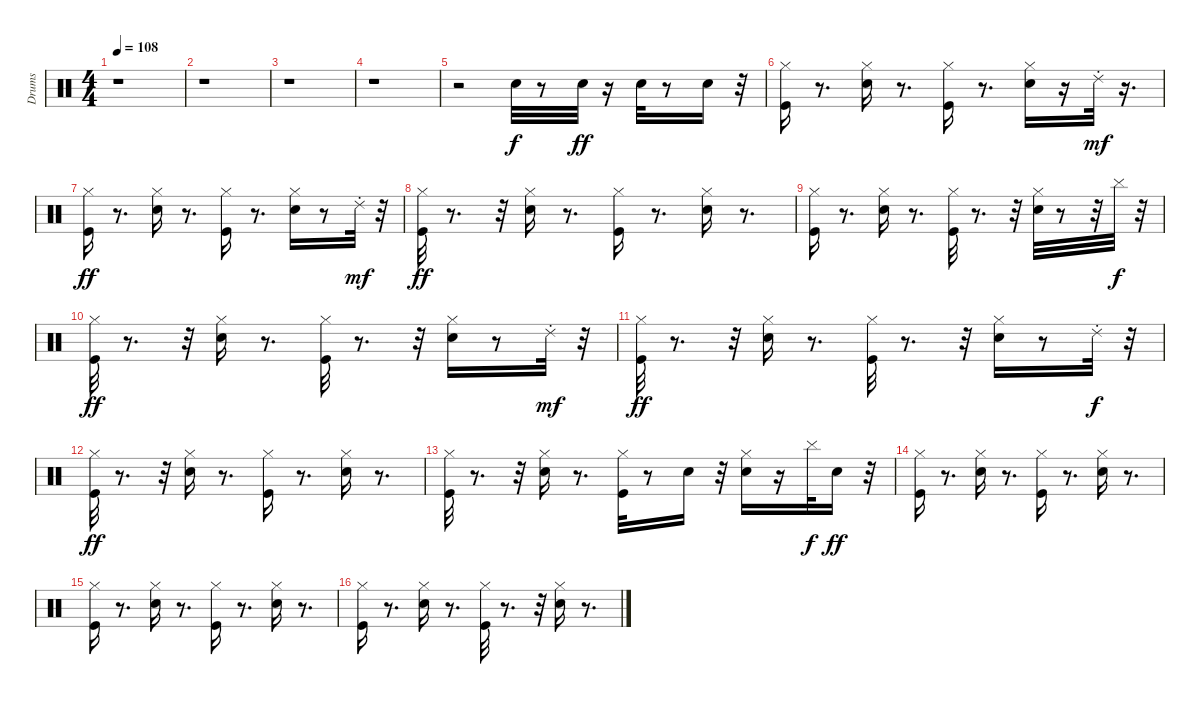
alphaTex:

\track ("Drums" "Drums") {instrument percussion}
\staff {score}
\articulation defaults
\ts (4 4)
\tempo 108
\clef neutral
\ks c
r.1{dy f} |
r.1 |
r.1 |
r.1 |
r.2 "Electric Snare (hit)".32 r.8 "Electric Snare (hit)".32{dy ff} r.16 "Electric Snare (hit)".32 r.8 "Electric Snare (hit)".16 r.32 |
("Kick (hit)" "Hi-Hat (closed)").16 r.8{d} ("Electric Snare (hit)" "Hi-Hat (closed)").16 r.8{d} ("Kick (hit)" "Hi-Hat (closed)").16 r.8{d} ("Hi-Hat (closed)" "Electric Snare (hit)").16 r.16 "Ride (choke) 2".32{dy mf} r.16{d} |
("Hi-Hat (closed)" "Kick (hit)").16{dy ff} r.8{d} ("Electric Snare (hit)" "Hi-Hat (closed)").16 r.8{d} ("Hi-Hat (closed)" "Kick (hit)").16 r.8{d} ("Hi-Hat (closed)" "Electric Snare (hit)").16 r.8 "Ride (choke) 2".32{dy mf} r.32 |
("Hi-Hat (closed)" "Kick (hit)").32{dy ff} r.8{d} r.32 ("Electric Snare (hit)" "Hi-Hat (closed)").16 r.8{d} ("Kick (hit)" "Hi-Hat (closed)").16 r.8{d} ("Hi-Hat (closed)" "Electric Snare (hit)").16 r.8{d} |
("Kick (hit)" "Hi-Hat (closed)").16 r.8{d} ("Hi-Hat (closed)" "Electric Snare (hit)").16 r.8{d} ("Kick (hit)" "Hi-Hat (closed)").32 r.8{d} r.32 ("Hi-Hat (closed)" "Electric Snare (hit)").32 r.8 r.32 "Cymbal (hit)".32{dy f} r.32 |
("Kick (hit)" "Hi-Hat (closed)").32{dy ff} r.8{d} r.32 ("Electric Snare (hit)" "Hi-Hat (closed)").16 r.8{d} ("Kick (hit)" "Hi-Hat (closed)").32 r.8{d} r.32 ("Hi-Hat (closed)" "Electric Snare (hit)").16 r.8 "Ride (choke) 2".32{dy mf} r.32 |
("Kick (hit)" "Hi-Hat (closed)").32{dy ff} r.8{d} r.32 ("Electric Snare (hit)" "Hi-Hat (closed)").16 r.8{d} ("Hi-Hat (closed)" "Kick (hit)").32 r.8{d} r.32 ("Electric Snare (hit)" "Hi-Hat (closed)").16 r.8 "Ride (choke) 2".32{dy f} r.32 |
("Kick (hit)" "Hi-Hat (closed)").32{dy ff} r.8{d} r.32 ("Hi-Hat (closed)" "Electric Snare (hit)").16 r.8{d} ("Kick (hit)" "Hi-Hat (closed)").16 r.8{d} ("Hi-Hat (closed)" "Electric Snare (hit)").16 r.8{d} |
("Hi-Hat (closed)" "Kick (hit)").32 r.8{d} r.32 ("Electric Snare (hit)" "Hi-Hat (closed)").16 r.8{d} ("Hi-Hat (closed)" "Kick (hit)").32 r.8 "Electric Snare (hit)".16 r.32 ("Hi-Hat (closed)" "Electric Snare (hit)").16 r.16 "Cymbal (hit)".32{dy f} "Electric Snare (hit)".16{dy ff} r.32 |
("Hi-Hat (closed)" "Kick (hit)").16 r.8{d} ("Electric Snare (hit)" "Hi-Hat (closed)").16 r.8{d} ("Hi-Hat (closed)" "Kick (hit)").16 r.8{d} ("Electric Snare (hit)" "Hi-Hat (closed)").16 r.8{d} |
("Kick (hit)" "Hi-Hat (closed)").16 r.8{d} ("Electric Snare (hit)" "Hi-Hat (closed)").16 r.8{d} ("Kick (hit)" "Hi-Hat (closed)").16 r.8{d} ("Electric Snare (hit)" "Hi-Hat (closed)").16 r.8{d} |
("Kick (hit)" "Hi-Hat (closed)").16 r.8{d} ("Electric Snare (hit)" "Hi-Hat (closed)").16 r.8{d} ("Hi-Hat (closed)" "Kick (hit)").32 r.8{d} r.32 ("Hi-Hat (closed)" "Electric Snare (hit)").16 r.8{d}
